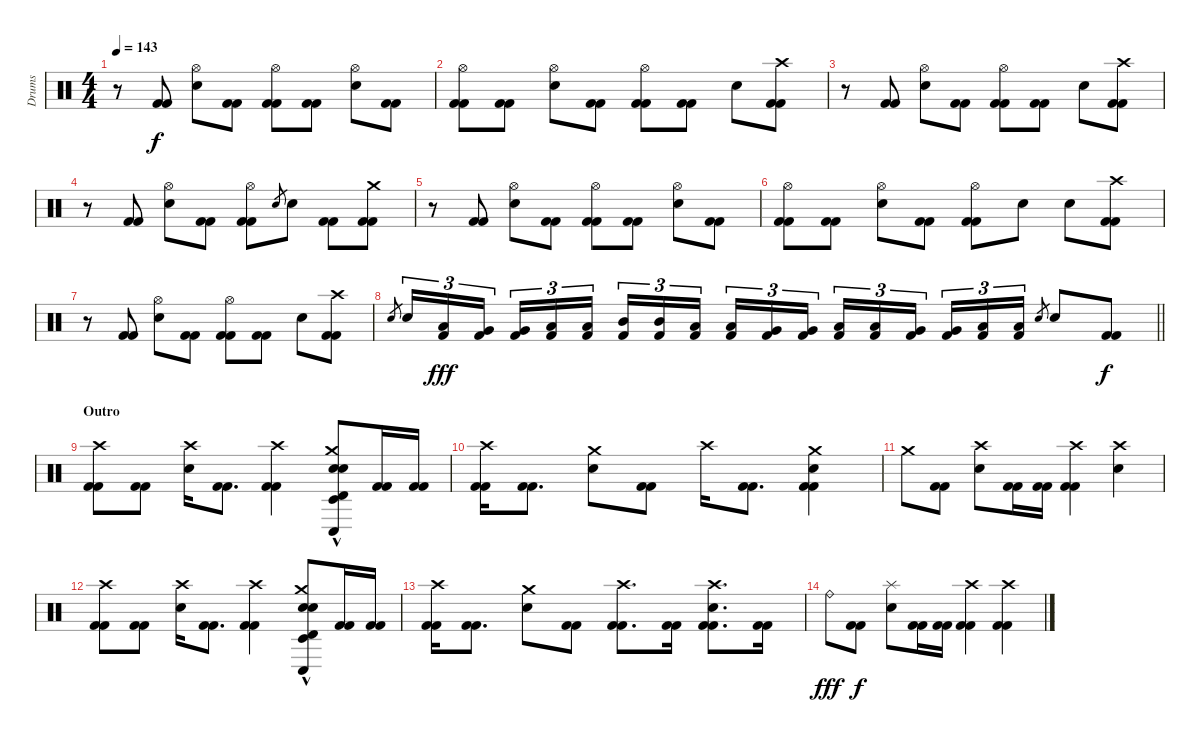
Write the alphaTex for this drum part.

\track ("Drums" "Drums") {instrument percussion}
\staff {score}
\articulation defaults
\ts (4 4)
\tempo 143
\clef neutral
\ks c
r.8{dy f} ("Kick (hit) 2" "Kick (hit) 2").8 ("Hi-Hat (open)" "Electric Snare (hit)").8 ("Kick (hit) 2" "Kick (hit) 2").8 ("Hi-Hat (open)" "Kick (hit) 2" "Kick (hit) 2").8 ("Kick (hit) 2" "Kick (hit) 2").8 ("Hi-Hat (open)" "Electric Snare (hit)").8 ("Kick (hit) 2" "Kick (hit) 2").8 |
("Hi-Hat (open)" "Kick (hit) 2" "Kick (hit) 2").8 ("Kick (hit) 2" "Kick (hit) 2").8 ("Hi-Hat (open)" "Electric Snare (hit)").8 ("Kick (hit) 2" "Kick (hit) 2").8 ("Hi-Hat (open)" "Kick (hit) 2" "Kick (hit) 2").8 ("Kick (hit) 2" "Kick (hit) 2").8 "Electric Snare (hit)".8 ("Crash high (hit)" "Kick (hit) 2" "Kick (hit) 2").8 |
r.8 ("Kick (hit) 2" "Kick (hit) 2").8 ("Hi-Hat (open)" "Electric Snare (hit)").8 ("Kick (hit) 2" "Kick (hit) 2").8 ("Hi-Hat (open)" "Kick (hit) 2" "Kick (hit) 2").8 ("Kick (hit) 2" "Kick (hit) 2").8 "Electric Snare (hit)".8 ("Crash high (hit)" "Kick (hit) 2" "Kick (hit) 2").8 |
r.8 ("Kick (hit) 2" "Kick (hit) 2").8 ("Hi-Hat (open)" "Electric Snare (hit)").8 ("Kick (hit) 2" "Kick (hit) 2").8 ("Hi-Hat (open)" "Kick (hit) 2" "Kick (hit) 2").8 "Electric Snare (hit)".8{gr} "Electric Snare (hit)".8 ("Kick (hit) 2" "Kick (hit) 2").8 ("Crash medium (hit)" "Kick (hit) 2" "Kick (hit) 2").8 |
r.8 ("Kick (hit) 2" "Kick (hit) 2").8 ("Hi-Hat (open)" "Electric Snare (hit)").8 ("Kick (hit) 2" "Kick (hit) 2").8 ("Hi-Hat (open)" "Kick (hit) 2" "Kick (hit) 2").8 ("Kick (hit) 2" "Kick (hit) 2").8 ("Hi-Hat (open)" "Electric Snare (hit)").8 ("Kick (hit) 2" "Kick (hit) 2").8 |
("Hi-Hat (open)" "Kick (hit) 2" "Kick (hit) 2").8 ("Kick (hit) 2" "Kick (hit) 2").8 ("Hi-Hat (open)" "Electric Snare (hit)").8 ("Kick (hit) 2" "Kick (hit) 2").8 ("Hi-Hat (open)" "Kick (hit) 2" "Kick (hit) 2").8 "Electric Snare (hit)".8 "Electric Snare (hit)".8 ("Crash high (hit)" "Kick (hit) 2" "Kick (hit) 2").8 |
r.8 ("Kick (hit) 2" "Kick (hit) 2").8 ("Hi-Hat (open)" "Electric Snare (hit)").8 ("Kick (hit) 2" "Kick (hit) 2").8 ("Hi-Hat (open)" "Kick (hit) 2" "Kick (hit) 2").8 ("Kick (hit) 2" "Kick (hit) 2").8 "Electric Snare (hit)".8 ("Crash high (hit)" "Kick (hit) 2" "Kick (hit) 2").8 |
\barLineRight lightlight "Electric Snare (hit)".8{gr} "Electric Snare (hit)".16{tu (3 2)}
("Low Tom (hit)" "Kick (hit) 2").16{tu (3 2) dy fff} ("Very Low Tom (hit)" "Kick (hit) 2").16{tu (3 2) beam splitsecondary} ("Very Low Tom (hit)" "Kick (hit) 2").16{tu (3 2)} ("Low Floor Tom (hit)" "Kick (hit) 2").16{tu (3 2)} ("Low Floor Tom (hit)" "Kick (hit) 2").16{tu (3 2)} ("Mid Tom (hit)" "Kick (hit) 2").16{tu (3 2)} ("Mid Tom (hit)" "Kick (hit) 2").16{tu (3 2)} ("Low Tom (hit)" "Kick (hit) 2").16{tu (3 2) beam splitsecondary} ("Low Tom (hit)" "Kick (hit) 2").16{tu (3 2)} ("Very Low Tom (hit)" "Kick (hit) 2").16{tu (3 2)} ("Very Low Tom (hit)" "Kick (hit) 2").16{tu (3 2)} ("Low Tom (hit)" "Kick (hit) 2").16{tu (3 2)} ("Low Tom (hit)" "Kick (hit) 2").16{tu (3 2)} ("Very Low Tom (hit)" "Kick (hit) 2").16{tu (3 2) beam splitsecondary} ("Very Low Tom (hit)" "Kick (hit) 2").16{tu (3 2)} ("Low Floor Tom (hit)" "Kick (hit) 2").16{tu (3 2)} ("Low Floor Tom (hit)" "Kick (hit) 2").16{tu (3 2)} "Electric Snare (hit)".8{gr} "Electric Snare (hit)".8 ("Kick (hit) 2" "Kick (hit) 2").8{dy f} |
\section ("" "Outro")
("Crash high (hit)" "Kick (hit) 2" "Kick (hit) 2").8 ("Kick (hit) 2" "Kick (hit) 2").8 ("Crash high (hit)" "Electric Snare (hit)").16 ("Kick (hit) 2" "Kick (hit) 2").8{d} ("Crash high (hit)" "Kick (hit) 2" "Kick (hit) 2").4 ("Timbale low (hit)" "Timbale high (hit)" "Conga low (hit)" "Electric Snare (hit)" "Crash medium (hit)"{hac} "Snare (hit) 2").8 ("Kick (hit) 2" "Kick (hit) 2").16 ("Kick (hit) 2" "Kick (hit) 2").16 |
("Crash high (hit)" "Kick (hit) 2" "Kick (hit) 2").16 ("Kick (hit) 2" "Kick (hit) 2").8{d} ("Crash medium (hit)" "Electric Snare (hit)").8 ("Kick (hit) 2" "Kick (hit) 2").8 "Crash high (hit)".16 ("Kick (hit) 2" "Kick (hit) 2").8{d} ("Crash medium (hit)" "Electric Snare (hit)" "Kick (hit) 2" "Kick (hit) 2").4 |
"Crash medium (hit)".8 ("Kick (hit) 2" "Kick (hit) 2").8 ("Crash high (hit)" "Electric Snare (hit)").8 ("Kick (hit) 2" "Kick (hit) 2").16 ("Kick (hit) 2" "Kick (hit) 2").16 ("Crash high (hit)" "Kick (hit) 2" "Kick (hit) 2").4 ("Crash high (hit)" "Electric Snare (hit)").4 |
("Crash high (hit)" "Kick (hit) 2" "Kick (hit) 2").8 ("Kick (hit) 2" "Kick (hit) 2").8 ("Crash high (hit)" "Electric Snare (hit)").16 ("Kick (hit) 2" "Kick (hit) 2").8{d} ("Crash high (hit)" "Kick (hit) 2" "Kick (hit) 2").4 ("Timbale low (hit)" "Timbale high (hit)" "Conga low (hit)" "Electric Snare (hit)" "Crash medium (hit)"{hac} "Snare (hit) 2").8 ("Kick (hit) 2" "Kick (hit) 2").16 ("Kick (hit) 2" "Kick (hit) 2").16 |
("Crash high (hit)" "Kick (hit) 2" "Kick (hit) 2").16 ("Kick (hit) 2" "Kick (hit) 2").8{d} ("Crash medium (hit)" "Electric Snare (hit)").8 ("Kick (hit) 2" "Kick (hit) 2").8 ("Crash high (hit)" "Kick (hit) 2" "Kick (hit) 2").8{d} ("Kick (hit) 2" "Kick (hit) 2").16 ("Crash high (hit)" "Electric Snare (hit)" "Kick (hit) 2" "Kick (hit) 2").8{d} ("Kick (hit) 2" "Kick (hit) 2").16 |
"Ride (bell)".8{dy fff} ("Kick (hit) 2" "Kick (hit) 2").8{dy f} ("Splash (hit)" "Electric Snare (hit)").8 ("Kick (hit) 2" "Kick (hit) 2").16 ("Kick (hit) 2" "Kick (hit) 2").16 ("Crash high (hit)" "Kick (hit) 2" "Kick (hit) 2").4 ("Crash high (hit)" "Kick (hit) 2" "Kick (hit) 2").4
